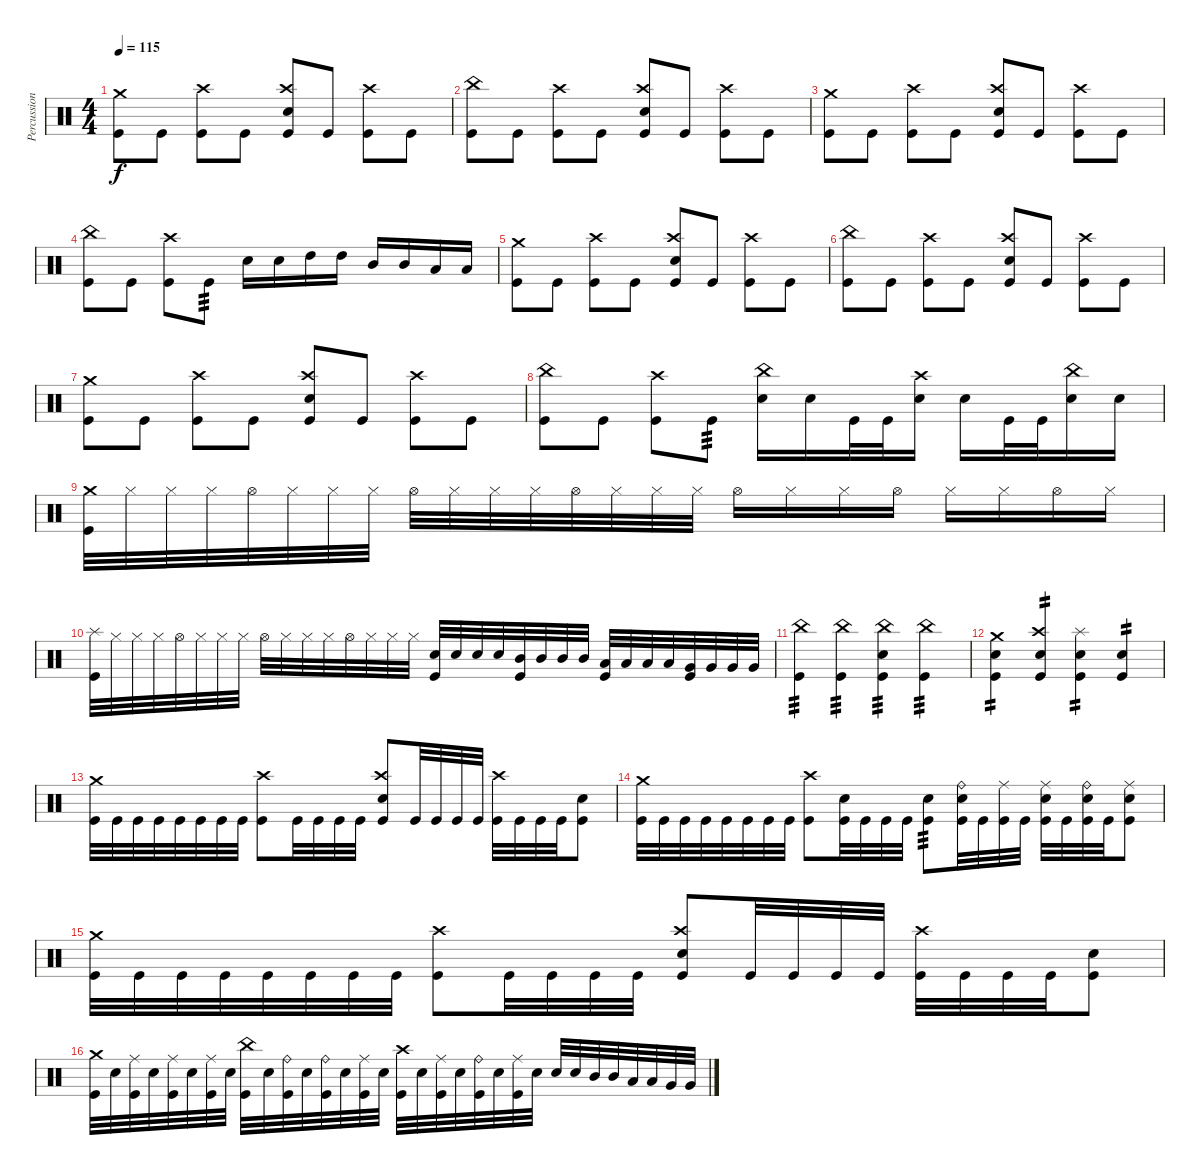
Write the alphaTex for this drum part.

\track ("Percussion" "Percussion") {instrument percussion}
\staff {score}
\articulation defaults
\ts (4 4)
\tempo 115
\clef neutral
\ks c
("Crash medium (hit)" "Kick (hit)").8{dy f} "Kick (hit)".8 ("Crash high (hit)" "Kick (hit)").8 "Kick (hit)".8 ("Crash high (hit)" "Electric Snare (hit)" "Kick (hit)").8 "Kick (hit)".8 ("Crash high (hit)" "Kick (hit)").8 "Kick (hit)".8 |
("China (hit)" "Kick (hit)").8 "Kick (hit)".8 ("Crash high (hit)" "Kick (hit)").8 "Kick (hit)".8 ("Crash high (hit)" "Electric Snare (hit)" "Kick (hit)").8 "Kick (hit)".8 ("Crash high (hit)" "Kick (hit)").8 "Kick (hit)".8 |
("Crash medium (hit)" "Kick (hit)").8 "Kick (hit)".8 ("Crash high (hit)" "Kick (hit)").8 "Kick (hit)".8 ("Crash high (hit)" "Electric Snare (hit)" "Kick (hit)").8 "Kick (hit)".8 ("Crash high (hit)" "Kick (hit)").8 "Kick (hit)".8 |
("China (hit)" "Kick (hit)").8 "Kick (hit)".8 ("Crash high (hit)" "Kick (hit)").8 "Kick (hit)".8{tp 3} "Electric Snare (hit)".16 "Electric Snare (hit)".16 "High Tom (hit)".16 "High Tom (hit)".16 "Mid Tom (hit)".16 "Mid Tom (hit)".16 "Low Tom (hit)".16 "Low Tom (hit)".16 |
("Crash medium (hit)" "Kick (hit)").8 "Kick (hit)".8 ("Crash high (hit)" "Kick (hit)").8 "Kick (hit)".8 ("Crash high (hit)" "Electric Snare (hit)" "Kick (hit)").8 "Kick (hit)".8 ("Crash high (hit)" "Kick (hit)").8 "Kick (hit)".8 |
("China (hit)" "Kick (hit)").8 "Kick (hit)".8 ("Crash high (hit)" "Kick (hit)").8 "Kick (hit)".8 ("Crash high (hit)" "Electric Snare (hit)" "Kick (hit)").8 "Kick (hit)".8 ("Crash high (hit)" "Kick (hit)").8 "Kick (hit)".8 |
("Crash medium (hit)" "Kick (hit)").8 "Kick (hit)".8 ("Crash high (hit)" "Kick (hit)").8 "Kick (hit)".8 ("Crash high (hit)" "Electric Snare (hit)" "Kick (hit)").8 "Kick (hit)".8 ("Crash high (hit)" "Kick (hit)").8 "Kick (hit)".8 |
("China (hit)" "Kick (hit)").8 "Kick (hit)".8 ("Crash high (hit)" "Kick (hit)").8 "Kick (hit)".8{tp 3} ("China (hit)" "Electric Snare (hit)").16 "Electric Snare (hit)".16 "Kick (hit)".32 "Kick (hit)".32 ("Crash high (hit)" "Electric Snare (hit)").16 "Electric Snare (hit)".16 "Kick (hit)".32 "Kick (hit)".32 ("China (hit)" "Electric Snare (hit)").16 "Electric Snare (hit)".16 |
("Crash medium (hit)" "Kick (hit)").32 "Hi-Hat (closed)".32 "Hi-Hat (closed)".32 "Hi-Hat (closed)".32 "Hi-Hat (open)".32 "Hi-Hat (closed)".32 "Hi-Hat (closed)".32 "Hi-Hat (closed)".32 "Hi-Hat (open)".32 "Hi-Hat (closed)".32 "Hi-Hat (closed)".32 "Hi-Hat (closed)".32 "Hi-Hat (open)".32 "Hi-Hat (closed)".32 "Hi-Hat (closed)".32 "Hi-Hat (closed)".32 "Hi-Hat (open)".16 "Hi-Hat (closed)".16 "Hi-Hat (closed)".16 "Hi-Hat (open)".16 "Hi-Hat (closed)".16 "Hi-Hat (closed)".16 "Hi-Hat (open)".16 "Hi-Hat (closed)".16 |
("Splash (hit)" "Kick (hit)").32 "Hi-Hat (closed)".32 "Hi-Hat (closed)".32 "Hi-Hat (closed)".32 "Hi-Hat (open)".32 "Hi-Hat (closed)".32 "Hi-Hat (closed)".32 "Hi-Hat (closed)".32 "Hi-Hat (open)".32 "Hi-Hat (closed)".32 "Hi-Hat (closed)".32 "Hi-Hat (closed)".32 "Hi-Hat (open)".32 "Hi-Hat (closed)".32 "Hi-Hat (closed)".32 "Hi-Hat (closed)".32 ("Electric Snare (hit)" "Kick (hit)").32 "Electric Snare (hit)".32 "Electric Snare (hit)".32 "Electric Snare (hit)".32 ("Mid Tom (hit)" "Kick (hit)").32 "Mid Tom (hit)".32 "Mid Tom (hit)".32 "Mid Tom (hit)".32 ("Low Tom (hit)" "Kick (hit)").32 "Low Tom (hit)".32 "Low Tom (hit)".32 "Low Tom (hit)".32 ("Very Low Tom (hit)" "Kick (hit)").32 "Very Low Tom (hit)".32 "Very Low Tom (hit)".32 "Very Low Tom (hit)".32 |
("China (hit)" "Kick (hit)").4{tp 3} ("China (hit)" "Kick (hit)").4{tp 3} ("China (hit)" "Electric Snare (hit)" "Kick (hit)").4{tp 3} ("China (hit)" "Kick (hit)").4{tp 3} |
("Crash medium (hit)" "Electric Snare (hit)" "Kick (hit)").4{tp 2} ("Crash high (hit)" "Electric Snare (hit)" "Kick (hit)").4{tp 2} ("Splash (hit)" "Electric Snare (hit)" "Kick (hit)").4{tp 2} ("Electric Snare (hit)" "Kick (hit)").4{tp 2} |
("Crash medium (hit)" "Kick (hit)").32 "Kick (hit)".32 "Kick (hit)".32 "Kick (hit)".32 "Kick (hit)".32 "Kick (hit)".32 "Kick (hit)".32 "Kick (hit)".32 ("Crash high (hit)" "Kick (hit)").8 "Kick (hit)".32 "Kick (hit)".32 "Kick (hit)".32 "Kick (hit)".32 ("Crash high (hit)" "Electric Snare (hit)" "Kick (hit)").8 "Kick (hit)".32 "Kick (hit)".32 "Kick (hit)".32 "Kick (hit)".32 ("Crash high (hit)" "Kick (hit)").32 "Kick (hit)".32 "Kick (hit)".32 "Kick (hit)".32 ("Electric Snare (hit)" "Kick (hit)").8 |
("Crash medium (hit)" "Kick (hit)").32 "Kick (hit)".32 "Kick (hit)".32 "Kick (hit)".32 "Kick (hit)".32 "Kick (hit)".32 "Kick (hit)".32 "Kick (hit)".32 ("Crash high (hit)" "Kick (hit)").8 ("Electric Snare (hit)" "Kick (hit)").32 "Kick (hit)".32 "Kick (hit)".32 "Kick (hit)".32 ("Electric Snare (hit)" "Kick (hit)").8{tp 3} ("Ride (bell)" "Electric Snare (hit)" "Kick (hit)").32 "Kick (hit)".32 ("Ride (middle)" "Kick (hit)").32 "Kick (hit)".32 ("Ride (middle)" "Electric Snare (hit)" "Kick (hit)").32 "Kick (hit)".32 ("Ride (bell)" "Electric Snare (hit)" "Kick (hit)").32 "Kick (hit)".32 ("Ride (middle)" "Electric Snare (hit)" "Kick (hit)").8 |
("Crash medium (hit)" "Kick (hit)").32 "Kick (hit)".32 "Kick (hit)".32 "Kick (hit)".32 "Kick (hit)".32 "Kick (hit)".32 "Kick (hit)".32 "Kick (hit)".32 ("Crash high (hit)" "Kick (hit)").8 "Kick (hit)".32 "Kick (hit)".32 "Kick (hit)".32 "Kick (hit)".32 ("Crash high (hit)" "Electric Snare (hit)" "Kick (hit)").8 "Kick (hit)".32 "Kick (hit)".32 "Kick (hit)".32 "Kick (hit)".32 ("Crash high (hit)" "Kick (hit)").32 "Kick (hit)".32 "Kick (hit)".32 "Kick (hit)".32 ("Electric Snare (hit)" "Kick (hit)").8 |
("Crash medium (hit)" "Kick (hit)").32 "Electric Snare (hit)".32 ("Ride (middle)" "Kick (hit)").32 "Electric Snare (hit)".32 ("Ride (middle)" "Kick (hit)").32 "Electric Snare (hit)".32 ("Ride (middle)" "Kick (hit)").32 "Electric Snare (hit)".32 ("China (hit)" "Kick (hit)").32 "Electric Snare (hit)".32 ("Ride (bell)" "Kick (hit)").32 "Electric Snare (hit)".32 ("Ride (bell)" "Kick (hit)").32 "Electric Snare (hit)".32 ("Ride (middle)" "Kick (hit)").32 "Electric Snare (hit)".32 ("Crash high (hit)" "Kick (hit)").32 "Electric Snare (hit)".32 ("Ride (middle)" "Kick (hit)").32 "Electric Snare (hit)".32 ("Ride (bell)" "Kick (hit)").32 "Electric Snare (hit)".32 ("Ride (middle)" "Kick (hit)").32 "Electric Snare (hit)".32 "Electric Snare (hit)".32 "Electric Snare (hit)".32 "Mid Tom (hit)".32 "Mid Tom (hit)".32 "Low Tom (hit)".32 "Low Tom (hit)".32 "Very Low Tom (hit)".32 "Very Low Tom (hit)".32
